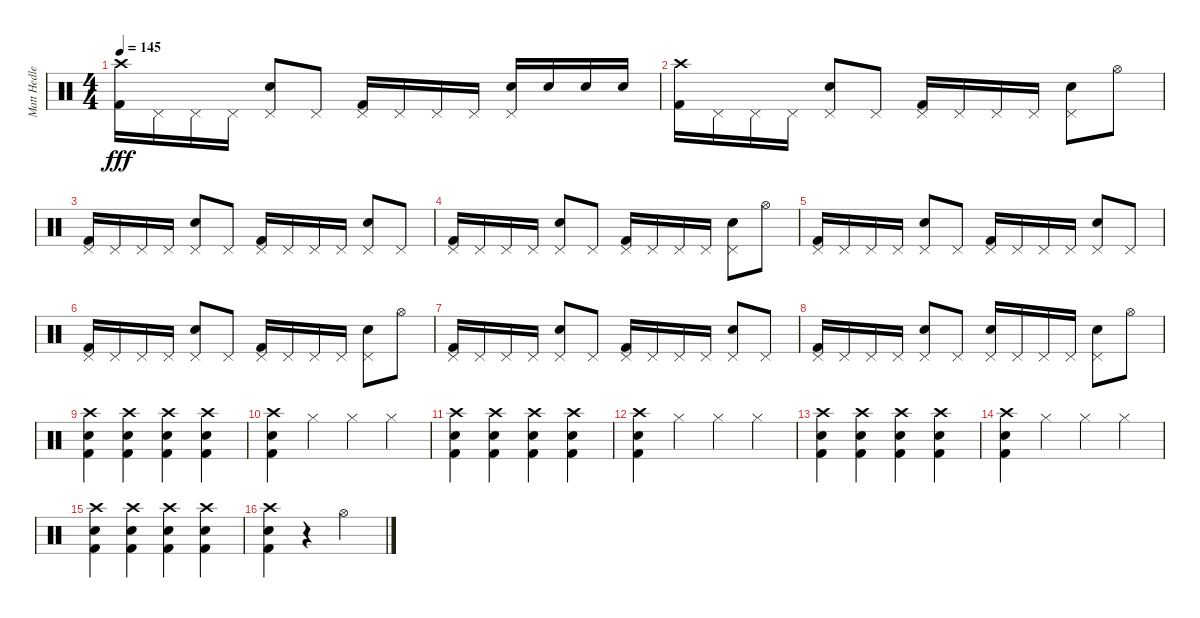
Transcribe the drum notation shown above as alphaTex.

\track ("Matt Hedlers" "Matt Hedle") {instrument percussion}
\staff {score}
\articulation defaults
\ts (4 4)
\tempo 145
\clef neutral
\ks c
("Crash high (hit)" "Kick (hit) 2").16{dy fff} "Pedal Hi-Hat (hit)".16 "Pedal Hi-Hat (hit)".16 "Pedal Hi-Hat (hit)".16 ("Pedal Hi-Hat (hit)" "Snare (hit) 2").8 "Pedal Hi-Hat (hit)".8 ("Pedal Hi-Hat (hit)" "Kick (hit) 2").16 "Pedal Hi-Hat (hit)".16 "Pedal Hi-Hat (hit)".16 "Pedal Hi-Hat (hit)".16 ("Pedal Hi-Hat (hit)" "Snare (hit) 2").16 "Snare (hit) 2".16 "Snare (hit) 2".16 "Snare (hit) 2".16 |
("Crash high (hit)" "Kick (hit) 2").16 "Pedal Hi-Hat (hit)".16 "Pedal Hi-Hat (hit)".16 "Pedal Hi-Hat (hit)".16 ("Pedal Hi-Hat (hit)" "Snare (hit) 2").8 "Pedal Hi-Hat (hit)".8 ("Pedal Hi-Hat (hit)" "Kick (hit) 2").16 "Pedal Hi-Hat (hit)".16 "Pedal Hi-Hat (hit)".16 "Pedal Hi-Hat (hit)".16 ("Pedal Hi-Hat (hit)" "Snare (hit) 2").8 "Hi-Hat (open)".8 |
("Pedal Hi-Hat (hit)" "Kick (hit) 2").16 "Pedal Hi-Hat (hit)".16 "Pedal Hi-Hat (hit)".16 "Pedal Hi-Hat (hit)".16 ("Pedal Hi-Hat (hit)" "Snare (hit) 2").8 "Pedal Hi-Hat (hit)".8 ("Pedal Hi-Hat (hit)" "Kick (hit) 2").16 "Pedal Hi-Hat (hit)".16 "Pedal Hi-Hat (hit)".16 "Pedal Hi-Hat (hit)".16 ("Pedal Hi-Hat (hit)" "Snare (hit) 2").8 "Pedal Hi-Hat (hit)".8 |
("Pedal Hi-Hat (hit)" "Kick (hit) 2").16 "Pedal Hi-Hat (hit)".16 "Pedal Hi-Hat (hit)".16 "Pedal Hi-Hat (hit)".16 ("Pedal Hi-Hat (hit)" "Snare (hit) 2").8 "Pedal Hi-Hat (hit)".8 ("Pedal Hi-Hat (hit)" "Kick (hit) 2").16 "Pedal Hi-Hat (hit)".16 "Pedal Hi-Hat (hit)".16 "Pedal Hi-Hat (hit)".16 ("Pedal Hi-Hat (hit)" "Snare (hit) 2").8 "Hi-Hat (open)".8 |
("Pedal Hi-Hat (hit)" "Kick (hit) 2").16 "Pedal Hi-Hat (hit)".16 "Pedal Hi-Hat (hit)".16 "Pedal Hi-Hat (hit)".16 ("Pedal Hi-Hat (hit)" "Snare (hit) 2").8 "Pedal Hi-Hat (hit)".8 ("Pedal Hi-Hat (hit)" "Kick (hit) 2").16 "Pedal Hi-Hat (hit)".16 "Pedal Hi-Hat (hit)".16 "Pedal Hi-Hat (hit)".16 ("Pedal Hi-Hat (hit)" "Snare (hit) 2").8 "Pedal Hi-Hat (hit)".8 |
("Pedal Hi-Hat (hit)" "Kick (hit) 2").16 "Pedal Hi-Hat (hit)".16 "Pedal Hi-Hat (hit)".16 "Pedal Hi-Hat (hit)".16 ("Pedal Hi-Hat (hit)" "Snare (hit) 2").8 "Pedal Hi-Hat (hit)".8 ("Pedal Hi-Hat (hit)" "Kick (hit) 2").16 "Pedal Hi-Hat (hit)".16 "Pedal Hi-Hat (hit)".16 "Pedal Hi-Hat (hit)".16 ("Pedal Hi-Hat (hit)" "Snare (hit) 2").8 "Hi-Hat (open)".8 |
("Pedal Hi-Hat (hit)" "Kick (hit) 2").16 "Pedal Hi-Hat (hit)".16 "Pedal Hi-Hat (hit)".16 "Pedal Hi-Hat (hit)".16 ("Pedal Hi-Hat (hit)" "Snare (hit) 2").8 "Pedal Hi-Hat (hit)".8 ("Pedal Hi-Hat (hit)" "Kick (hit) 2").16 "Pedal Hi-Hat (hit)".16 "Pedal Hi-Hat (hit)".16 "Pedal Hi-Hat (hit)".16 ("Pedal Hi-Hat (hit)" "Snare (hit) 2").8 "Pedal Hi-Hat (hit)".8 |
("Pedal Hi-Hat (hit)" "Kick (hit) 2").16 "Pedal Hi-Hat (hit)".16 "Pedal Hi-Hat (hit)".16 "Pedal Hi-Hat (hit)".16 ("Pedal Hi-Hat (hit)" "Snare (hit) 2").8 "Pedal Hi-Hat (hit)".8 ("Pedal Hi-Hat (hit)" "Snare (hit) 2").16 "Pedal Hi-Hat (hit)".16 "Pedal Hi-Hat (hit)".16 "Pedal Hi-Hat (hit)".16 ("Pedal Hi-Hat (hit)" "Snare (hit) 2").8 "Hi-Hat (open)".8 |
("Crash high (hit)" "Snare (hit) 2" "Kick (hit) 2").4 ("Crash high (hit)" "Snare (hit) 2" "Kick (hit) 2").4 ("Crash high (hit)" "Snare (hit) 2" "Kick (hit) 2").4 ("Crash high (hit)" "Snare (hit) 2" "Kick (hit) 2").4 |
("Crash high (hit)" "Snare (hit) 2" "Kick (hit) 2").4 "Hi-Hat (closed)".4 "Hi-Hat (closed)".4 "Hi-Hat (closed)".4 |
("Crash high (hit)" "Snare (hit) 2" "Kick (hit) 2").4 ("Crash high (hit)" "Snare (hit) 2" "Kick (hit) 2").4 ("Crash high (hit)" "Snare (hit) 2" "Kick (hit) 2").4 ("Crash high (hit)" "Snare (hit) 2" "Kick (hit) 2").4 |
("Crash high (hit)" "Snare (hit) 2" "Kick (hit) 2").4 "Hi-Hat (closed)".4 "Hi-Hat (closed)".4 "Hi-Hat (closed)".4 |
("Crash high (hit)" "Snare (hit) 2" "Kick (hit) 2").4 ("Crash high (hit)" "Snare (hit) 2" "Kick (hit) 2").4 ("Crash high (hit)" "Snare (hit) 2" "Kick (hit) 2").4 ("Crash high (hit)" "Snare (hit) 2" "Kick (hit) 2").4 |
("Crash high (hit)" "Snare (hit) 2" "Kick (hit) 2").4 "Hi-Hat (closed)".4 "Hi-Hat (closed)".4 "Hi-Hat (closed)".4 |
("Crash high (hit)" "Snare (hit) 2" "Kick (hit) 2").4 ("Crash high (hit)" "Snare (hit) 2" "Kick (hit) 2").4 ("Crash high (hit)" "Snare (hit) 2" "Kick (hit) 2").4 ("Crash high (hit)" "Snare (hit) 2" "Kick (hit) 2").4 |
("Crash high (hit)" "Snare (hit) 2" "Kick (hit) 2").4 r.4 "Hi-Hat (open)".2
